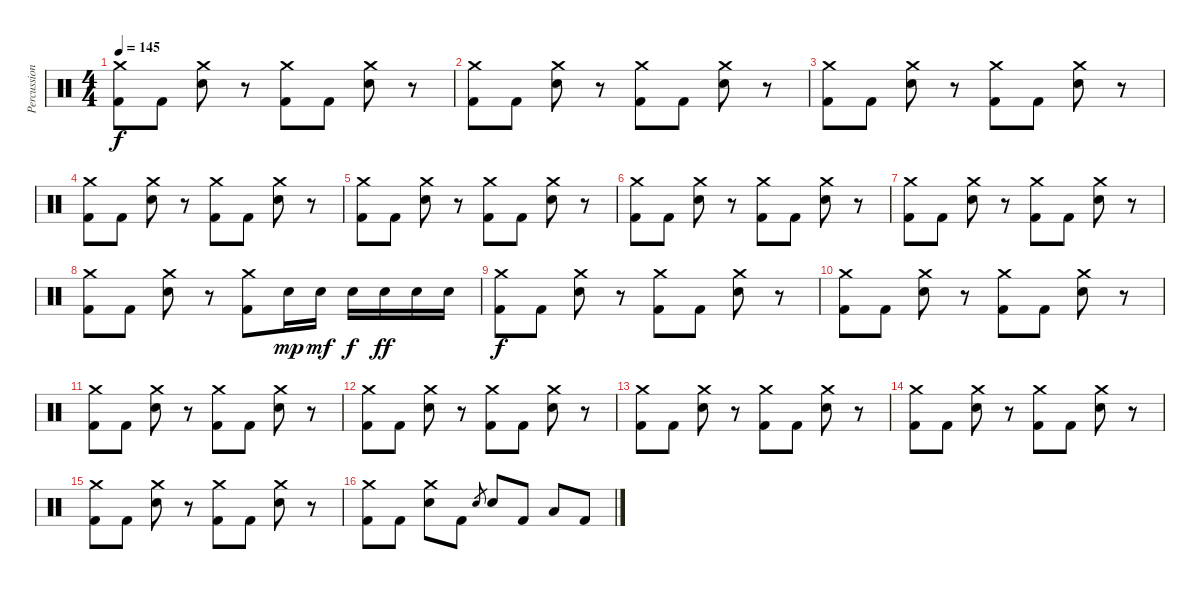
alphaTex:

\track ("Percussions" "Percussion") {instrument percussion}
\staff {score}
\articulation defaults
\ts (4 4)
\tempo 145
\clef neutral
\ks c
("Crash medium (hit)" "Kick (hit) 2").8{dy f} "Kick (hit) 2".8 ("Crash medium (hit)" "Snare (hit) 2").8 r.8 ("Crash medium (hit)" "Kick (hit) 2").8 "Kick (hit) 2".8 ("Crash medium (hit)" "Snare (hit) 2").8 r.8 |
("Crash medium (hit)" "Kick (hit) 2").8 "Kick (hit) 2".8 ("Crash medium (hit)" "Snare (hit) 2").8 r.8 ("Crash medium (hit)" "Kick (hit) 2").8 "Kick (hit) 2".8 ("Crash medium (hit)" "Snare (hit) 2").8 r.8 |
("Crash medium (hit)" "Kick (hit) 2").8 "Kick (hit) 2".8 ("Crash medium (hit)" "Snare (hit) 2").8 r.8 ("Crash medium (hit)" "Kick (hit) 2").8 "Kick (hit) 2".8 ("Crash medium (hit)" "Snare (hit) 2").8 r.8 |
("Crash medium (hit)" "Kick (hit) 2").8 "Kick (hit) 2".8 ("Crash medium (hit)" "Snare (hit) 2").8 r.8 ("Crash medium (hit)" "Kick (hit) 2").8 "Kick (hit) 2".8 ("Crash medium (hit)" "Snare (hit) 2").8 r.8 |
("Crash medium (hit)" "Kick (hit) 2").8 "Kick (hit) 2".8 ("Crash medium (hit)" "Snare (hit) 2").8 r.8 ("Crash medium (hit)" "Kick (hit) 2").8 "Kick (hit) 2".8 ("Crash medium (hit)" "Snare (hit) 2").8 r.8 |
("Crash medium (hit)" "Kick (hit) 2").8 "Kick (hit) 2".8 ("Crash medium (hit)" "Snare (hit) 2").8 r.8 ("Crash medium (hit)" "Kick (hit) 2").8 "Kick (hit) 2".8 ("Crash medium (hit)" "Snare (hit) 2").8 r.8 |
("Crash medium (hit)" "Kick (hit) 2").8 "Kick (hit) 2".8 ("Crash medium (hit)" "Snare (hit) 2").8 r.8 ("Crash medium (hit)" "Kick (hit) 2").8 "Kick (hit) 2".8 ("Crash medium (hit)" "Snare (hit) 2").8 r.8 |
("Crash medium (hit)" "Kick (hit) 2").8 "Kick (hit) 2".8 ("Crash medium (hit)" "Snare (hit) 2").8 r.8 ("Crash medium (hit)" "Kick (hit) 2").8 "Snare (hit) 2".16{dy mp} "Snare (hit) 2".16{dy mf} "Snare (hit) 2".16{dy f} "Snare (hit) 2".16{dy ff} "Snare (hit) 2".16 "Snare (hit) 2".16 |
("Crash medium (hit)" "Kick (hit) 2").8{dy f} "Kick (hit) 2".8 ("Crash medium (hit)" "Snare (hit) 2").8 r.8 ("Crash medium (hit)" "Kick (hit) 2").8 "Kick (hit) 2".8 ("Crash medium (hit)" "Snare (hit) 2").8 r.8 |
("Crash medium (hit)" "Kick (hit) 2").8 "Kick (hit) 2".8 ("Crash medium (hit)" "Snare (hit) 2").8 r.8 ("Crash medium (hit)" "Kick (hit) 2").8 "Kick (hit) 2".8 ("Crash medium (hit)" "Snare (hit) 2").8 r.8 |
("Crash medium (hit)" "Kick (hit) 2").8 "Kick (hit) 2".8 ("Crash medium (hit)" "Snare (hit) 2").8 r.8 ("Crash medium (hit)" "Kick (hit) 2").8 "Kick (hit) 2".8 ("Crash medium (hit)" "Snare (hit) 2").8 r.8 |
("Crash medium (hit)" "Kick (hit) 2").8 "Kick (hit) 2".8 ("Crash medium (hit)" "Snare (hit) 2").8 r.8 ("Crash medium (hit)" "Kick (hit) 2").8 "Kick (hit) 2".8 ("Crash medium (hit)" "Snare (hit) 2").8 r.8 |
("Crash medium (hit)" "Kick (hit) 2").8 "Kick (hit) 2".8 ("Crash medium (hit)" "Snare (hit) 2").8 r.8 ("Crash medium (hit)" "Kick (hit) 2").8 "Kick (hit) 2".8 ("Crash medium (hit)" "Snare (hit) 2").8 r.8 |
("Crash medium (hit)" "Kick (hit) 2").8 "Kick (hit) 2".8 ("Crash medium (hit)" "Snare (hit) 2").8 r.8 ("Crash medium (hit)" "Kick (hit) 2").8 "Kick (hit) 2".8 ("Crash medium (hit)" "Snare (hit) 2").8 r.8 |
("Crash medium (hit)" "Kick (hit) 2").8 "Kick (hit) 2".8 ("Crash medium (hit)" "Snare (hit) 2").8 r.8 ("Crash medium (hit)" "Kick (hit) 2").8 "Kick (hit) 2".8 ("Crash medium (hit)" "Snare (hit) 2").8 r.8 |
("Crash medium (hit)" "Kick (hit) 2").8 "Kick (hit) 2".8 ("Crash medium (hit)" "Snare (hit) 2").8 "Kick (hit) 2".8 "Snare (hit) 2".8{gr} "Snare (hit) 2".8 "Kick (hit) 2".8 "Low Tom (hit)".8 "Kick (hit) 2".8
